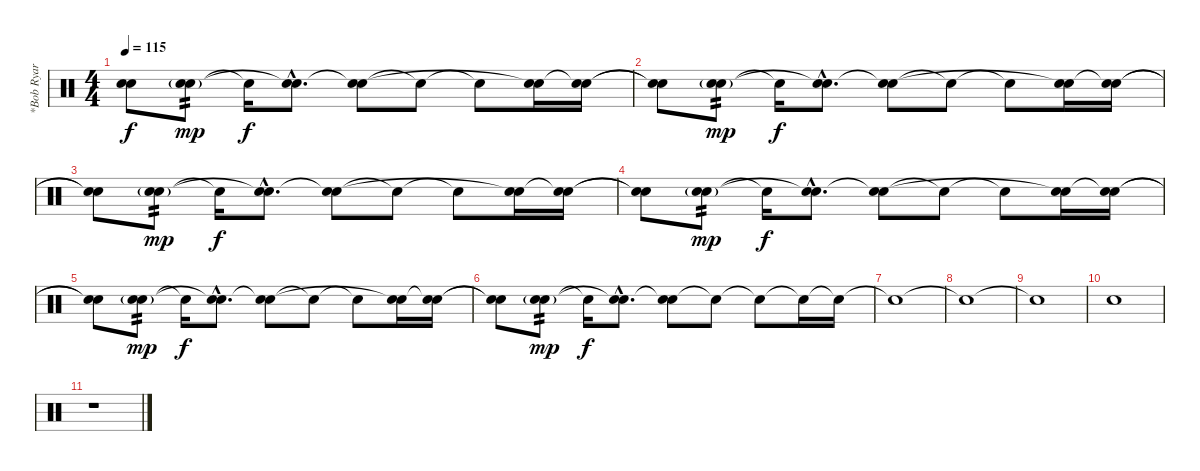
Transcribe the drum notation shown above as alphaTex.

\track ("*Bob Ryar (Drums)" "*Bob Ryar ") {instrument percussion}
\staff {score}
\articulation defaults
\ts (4 4)
\tempo 115
\clef neutral
\ks c
("Electric Snare (hit)"{t} "Snare (hit)"{t}).8{dy f} ("Electric Snare (hit)" "Electric Snare (hit)"{g}).8{tp 2 dy mp} "Snare (hit)"{t}.16{dy f} ("Electric Snare (hit)"{hac} "Snare (hit)"{hac t}).8{d} ("Electric Snare (hit)" "Snare (hit)"{t}).8 "Snare (hit)"{t}.8 "Snare (hit)"{t}.8 ("Electric Snare (hit)" "Snare (hit)"{t}).16 ("Electric Snare (hit)" "Snare (hit)"{t}).16 |
("Electric Snare (hit)"{t} "Snare (hit)"{t}).8 ("Electric Snare (hit)" "Electric Snare (hit)"{g}).8{tp 2 dy mp} "Snare (hit)"{t}.16{dy f} ("Electric Snare (hit)"{hac} "Snare (hit)"{hac t}).8{d} ("Electric Snare (hit)" "Snare (hit)"{t}).8 "Snare (hit)"{t}.8 "Snare (hit)"{t}.8 ("Electric Snare (hit)" "Snare (hit)"{t}).16 ("Electric Snare (hit)" "Snare (hit)"{t}).16 |
("Electric Snare (hit)"{t} "Snare (hit)"{t}).8 ("Electric Snare (hit)" "Electric Snare (hit)"{g}).8{tp 2 dy mp} "Snare (hit)"{t}.16{dy f} ("Electric Snare (hit)"{hac} "Snare (hit)"{hac t}).8{d} ("Electric Snare (hit)" "Snare (hit)"{t}).8 "Snare (hit)"{t}.8 "Snare (hit)"{t}.8 ("Electric Snare (hit)" "Snare (hit)"{t}).16 ("Electric Snare (hit)" "Snare (hit)"{t}).16 |
("Electric Snare (hit)"{t} "Snare (hit)"{t}).8 ("Electric Snare (hit)" "Electric Snare (hit)"{g}).8{tp 2 dy mp} "Snare (hit)"{t}.16{dy f} ("Electric Snare (hit)"{hac} "Snare (hit)"{hac t}).8{d} ("Electric Snare (hit)" "Snare (hit)"{t}).8 "Snare (hit)"{t}.8 "Snare (hit)"{t}.8 ("Electric Snare (hit)" "Snare (hit)"{t}).16 ("Electric Snare (hit)" "Snare (hit)"{t}).16 |
("Electric Snare (hit)"{t} "Snare (hit)"{t}).8 ("Electric Snare (hit)" "Electric Snare (hit)"{g}).8{tp 2 dy mp} "Snare (hit)"{t}.16{dy f} ("Electric Snare (hit)"{hac} "Snare (hit)"{hac t}).8{d} ("Electric Snare (hit)" "Snare (hit)"{t}).8 "Snare (hit)"{t}.8 "Snare (hit)"{t}.8 ("Electric Snare (hit)" "Snare (hit)"{t}).16 ("Electric Snare (hit)" "Snare (hit)"{t}).16 |
("Electric Snare (hit)"{t} "Snare (hit)"{t}).8 ("Electric Snare (hit)" "Electric Snare (hit)"{g}).8{tp 2 dy mp} "Snare (hit)"{t}.16{dy f} ("Electric Snare (hit)"{hac} "Snare (hit)"{hac t}).8{d} ("Electric Snare (hit)" "Snare (hit)"{t}).8 "Snare (hit)"{t}.8 "Snare (hit)"{t}.8 "Snare (hit)"{t}.16 "Snare (hit)"{t}.16 |
"Snare (hit)"{t}.1 |
"Snare (hit)"{t}.1 |
"Snare (hit)"{t}.1 |
"Electric Snare (hit)".1 |
r.1
